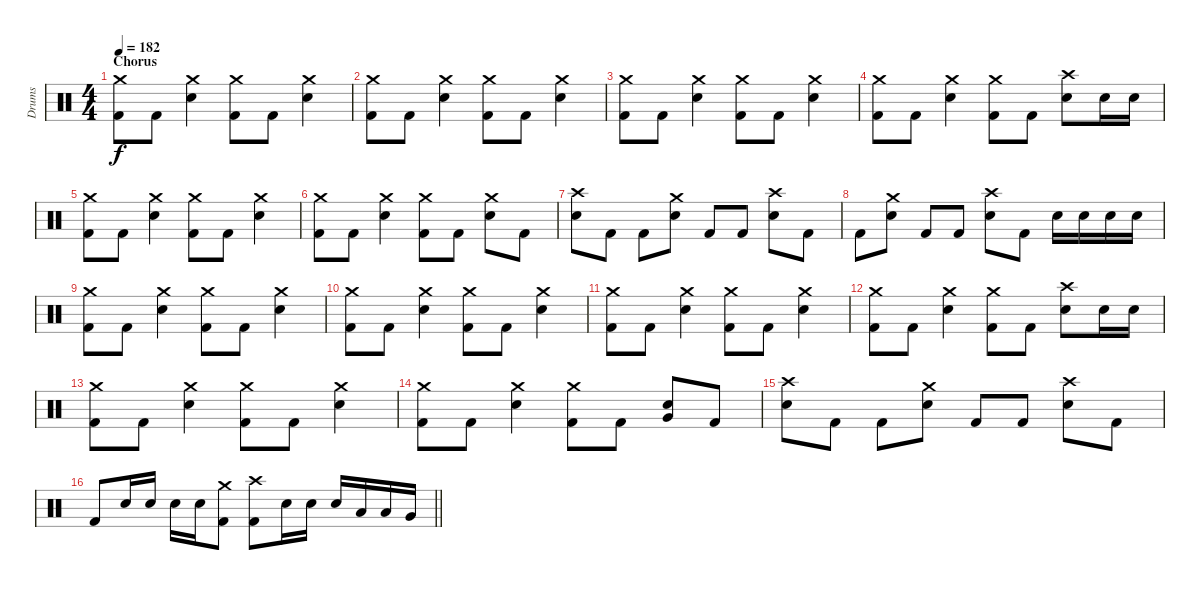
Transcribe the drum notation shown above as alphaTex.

\track ("Drums" "Drums") {instrument percussion}
\staff {score}
\articulation defaults
\ts (4 4)
\section ("" "Chorus")
\tempo 182
\clef neutral
\ks c
("Crash medium (hit)" "Kick (hit) 2").8{dy f} "Kick (hit) 2".8 ("Crash medium (hit)" "Electric Snare (hit)").4 ("Crash medium (hit)" "Kick (hit) 2").8 "Kick (hit) 2".8 ("Crash medium (hit)" "Electric Snare (hit)").4 |
("Crash medium (hit)" "Kick (hit) 2").8 "Kick (hit) 2".8 ("Crash medium (hit)" "Electric Snare (hit)").4 ("Crash medium (hit)" "Kick (hit) 2").8 "Kick (hit) 2".8 ("Crash medium (hit)" "Electric Snare (hit)").4 |
("Crash medium (hit)" "Kick (hit) 2").8 "Kick (hit) 2".8 ("Crash medium (hit)" "Electric Snare (hit)").4 ("Crash medium (hit)" "Kick (hit) 2").8 "Kick (hit) 2".8 ("Crash medium (hit)" "Electric Snare (hit)").4 |
("Crash medium (hit)" "Kick (hit) 2").8 "Kick (hit) 2".8 ("Crash medium (hit)" "Electric Snare (hit)").4 ("Crash medium (hit)" "Kick (hit) 2").8 "Kick (hit) 2".8 ("Crash high (hit)" "Electric Snare (hit)").8 "Electric Snare (hit)".16 "Electric Snare (hit)".16 |
("Crash medium (hit)" "Kick (hit) 2").8 "Kick (hit) 2".8 ("Crash medium (hit)" "Electric Snare (hit)").4 ("Crash medium (hit)" "Kick (hit) 2").8 "Kick (hit) 2".8 ("Crash medium (hit)" "Electric Snare (hit)").4 |
("Crash medium (hit)" "Kick (hit) 2").8 "Kick (hit) 2".8 ("Crash medium (hit)" "Electric Snare (hit)").4 ("Crash medium (hit)" "Kick (hit) 2").8 "Kick (hit) 2".8 ("Crash medium (hit)" "Electric Snare (hit)").8 "Kick (hit) 2".8 |
("Crash high (hit)" "Electric Snare (hit)").8 "Kick (hit) 2".8 "Kick (hit) 2".8 ("Crash medium (hit)" "Electric Snare (hit)").8 "Kick (hit) 2".8 "Kick (hit) 2".8 ("Crash high (hit)" "Electric Snare (hit)").8 "Kick (hit) 2".8 |
"Kick (hit) 2".8 ("Crash medium (hit)" "Electric Snare (hit)").8 "Kick (hit) 2".8 "Kick (hit) 2".8 ("Crash high (hit)" "Electric Snare (hit)").8 "Kick (hit) 2".8 "Electric Snare (hit)".16 "Electric Snare (hit)".16 "Electric Snare (hit)".16 "Electric Snare (hit)".16 |
("Crash medium (hit)" "Kick (hit) 2").8 "Kick (hit) 2".8 ("Crash medium (hit)" "Electric Snare (hit)").4 ("Crash medium (hit)" "Kick (hit) 2").8 "Kick (hit) 2".8 ("Crash medium (hit)" "Electric Snare (hit)").4 |
("Crash medium (hit)" "Kick (hit) 2").8 "Kick (hit) 2".8 ("Crash medium (hit)" "Electric Snare (hit)").4 ("Crash medium (hit)" "Kick (hit) 2").8 "Kick (hit) 2".8 ("Crash medium (hit)" "Electric Snare (hit)").4 |
("Crash medium (hit)" "Kick (hit) 2").8 "Kick (hit) 2".8 ("Crash medium (hit)" "Electric Snare (hit)").4 ("Crash medium (hit)" "Kick (hit) 2").8 "Kick (hit) 2".8 ("Crash medium (hit)" "Electric Snare (hit)").4 |
("Crash medium (hit)" "Kick (hit) 2").8 "Kick (hit) 2".8 ("Crash medium (hit)" "Electric Snare (hit)").4 ("Crash medium (hit)" "Kick (hit) 2").8 "Kick (hit) 2".8 ("Crash high (hit)" "Electric Snare (hit)").8 "Electric Snare (hit)".16 "Electric Snare (hit)".16 |
("Crash medium (hit)" "Kick (hit) 2").8 "Kick (hit) 2".8 ("Crash medium (hit)" "Electric Snare (hit)").4 ("Crash medium (hit)" "Kick (hit) 2").8 "Kick (hit) 2".8 ("Crash medium (hit)" "Electric Snare (hit)").4 |
("Crash medium (hit)" "Kick (hit) 2").8 "Kick (hit) 2".8 ("Crash medium (hit)" "Electric Snare (hit)").4 ("Crash medium (hit)" "Kick (hit) 2").8 "Kick (hit) 2".8 ("Very Low Tom (hit)" "Electric Snare (hit)").8 "Kick (hit) 2".8 |
("Crash high (hit)" "Electric Snare (hit)").8 "Kick (hit) 2".8 "Kick (hit) 2".8 ("Crash medium (hit)" "Electric Snare (hit)").8 "Kick (hit) 2".8 "Kick (hit) 2".8 ("Crash high (hit)" "Electric Snare (hit)").8 "Kick (hit) 2".8 |
\barLineRight lightlight "Kick (hit) 2".8 "Electric Snare (hit)".16 "Electric Snare (hit)".16 "Electric Snare (hit)".16 "Electric Snare (hit)".16
("Crash medium (hit)" "Kick (hit) 2").8 ("Crash high (hit)" "Kick (hit) 2").8 "Electric Snare (hit)".16 "Electric Snare (hit)".16 "Electric Snare (hit)".16 "Low Tom (hit)".16 "Low Tom (hit)".16 "Very Low Tom (hit)".16
